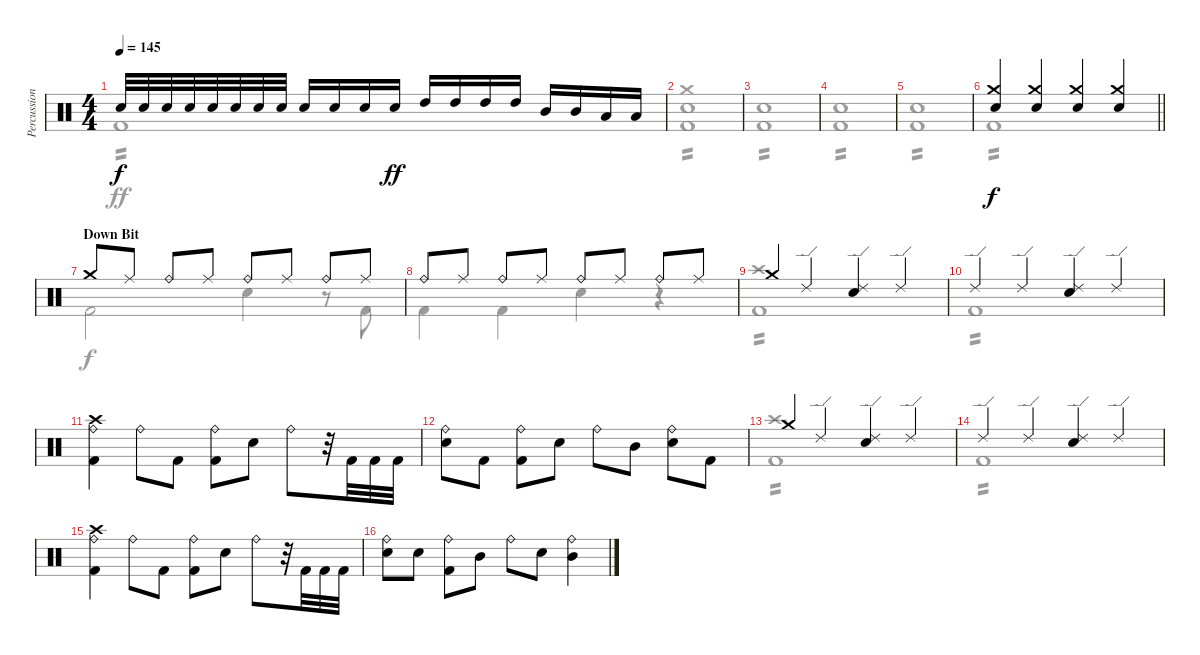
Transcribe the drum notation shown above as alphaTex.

\track ("Percussion" "Percussion") {instrument percussion}
\staff {score}
\articulation defaults
\voice
\ts (4 4)
\tempo 145
\clef neutral
\ks c "Electric Snare (hit)".32{dy f} "Electric Snare (hit)".32 "Electric Snare (hit)".32 "Electric Snare (hit)".32 "Electric Snare (hit)".32 "Electric Snare (hit)".32 "Electric Snare (hit)".32 "Electric Snare (hit)".32 "Electric Snare (hit)".16 "Electric Snare (hit)".16 "Electric Snare (hit)".16 "Electric Snare (hit)".16{dy ff} "High Tom (hit)".16 "High Tom (hit)".16 "High Tom (hit)".16 "High Tom (hit)".16 "Mid Tom (hit)".16 "Mid Tom (hit)".16 "Low Tom (hit)".16 "Low Tom (hit)".16
|
|
|
|
|
\barLineRight lightlight
("Crash medium (hit)" "Electric Snare (hit)").4{dy f} ("Crash medium (hit)" "Electric Snare (hit)").4 ("Crash medium (hit)" "Electric Snare (hit)").4 ("Crash medium (hit)" "Electric Snare (hit)").4 |
\section ("" "Down Bit")
"Crash medium (hit)".8 "Ride (middle)".8 "Ride (bell)".8 "Ride (middle)".8 "Ride (bell)".8 "Ride (middle)".8 "Ride (bell)".8 "Ride (middle)".8 |
"Ride (bell)".8 "Ride (middle)".8 "Ride (bell)".8 "Ride (middle)".8 "Ride (bell)".8 "Ride (middle)".8 "Ride (bell)".8 "Ride (middle)".8 |
"Crash medium (hit)".4 "Ride (edge) 2".4 ("Ride (edge) 2" "Electric Snare (hit)").4 "Ride (edge) 2".4 |
"Ride (edge) 2".4 "Ride (edge) 2".4 ("Ride (edge) 2" "Electric Snare (hit)").4 "Ride (edge) 2".4 |
("Ride (bell)" "Crash high (hit)" "Kick (hit) 2").4 "Ride (bell)".8 "Kick (hit) 2".8 ("Ride (bell)" "Kick (hit) 2").8 "Electric Snare (hit)".8 "Ride (bell)".8 r.32 "Kick (hit) 2".32 "Kick (hit) 2".32 "Kick (hit) 2".32 |
("Ride (bell)" "Electric Snare (hit)").8 "Kick (hit) 2".8 ("Ride (bell)" "Kick (hit) 2").8 "Electric Snare (hit)".8 "Ride (bell)".8 "Mid Tom (hit)".8 ("Ride (bell)" "Electric Snare (hit)").8 "Kick (hit) 2".8 |
"Crash medium (hit)".4 "Ride (edge) 2".4 ("Ride (edge) 2" "Electric Snare (hit)").4 "Ride (edge) 2".4 |
"Ride (edge) 2".4 "Ride (edge) 2".4 ("Ride (edge) 2" "Electric Snare (hit)").4 "Ride (edge) 2".4 |
("Ride (bell)" "Crash high (hit)" "Kick (hit) 2").4 "Ride (bell)".8 "Kick (hit) 2".8 ("Ride (bell)" "Kick (hit) 2").8 "Electric Snare (hit)".8 "Ride (bell)".8 r.32 "Kick (hit) 2".32 "Kick (hit) 2".32 "Kick (hit) 2".32 |
("Ride (bell)" "Electric Snare (hit)").8 "Electric Snare (hit)".8 ("Ride (bell)" "Kick (hit) 2").8 "Mid Tom (hit)".8 "Ride (bell)".8 "Electric Snare (hit)".8 ("Ride (bell)" "Mid Tom (hit)").4
\voice
\clef neutral
\ottava regular
\simile none
\ks c "Kick (hit) 2".1{tp 2 dy ff}
|
("Crash medium (hit)" "Electric Snare (hit)" "Kick (hit) 2").1{tp 2} |
("Electric Snare (hit)" "Kick (hit) 2").1{tp 2} |
("Electric Snare (hit)" "Kick (hit) 2").1{tp 2} |
("Electric Snare (hit)" "Kick (hit) 2").1{tp 2} |
\barLineRight lightlight "Kick (hit) 2".1{tp 2}
|
"Kick (hit) 2".2{dy f} "Electric Snare (hit)".4 r.8 "Kick (hit) 2".8 |
"Kick (hit) 2".4 "Kick (hit) 2".4 "Electric Snare (hit)".4 r.4 |
("Crash high (hit)" "Kick (hit) 2").1{tp 2} |
"Kick (hit) 2".1{tp 2} |
|
|
("Crash high (hit)" "Kick (hit) 2").1{tp 2} |
"Kick (hit) 2".1{tp 2} |
|
